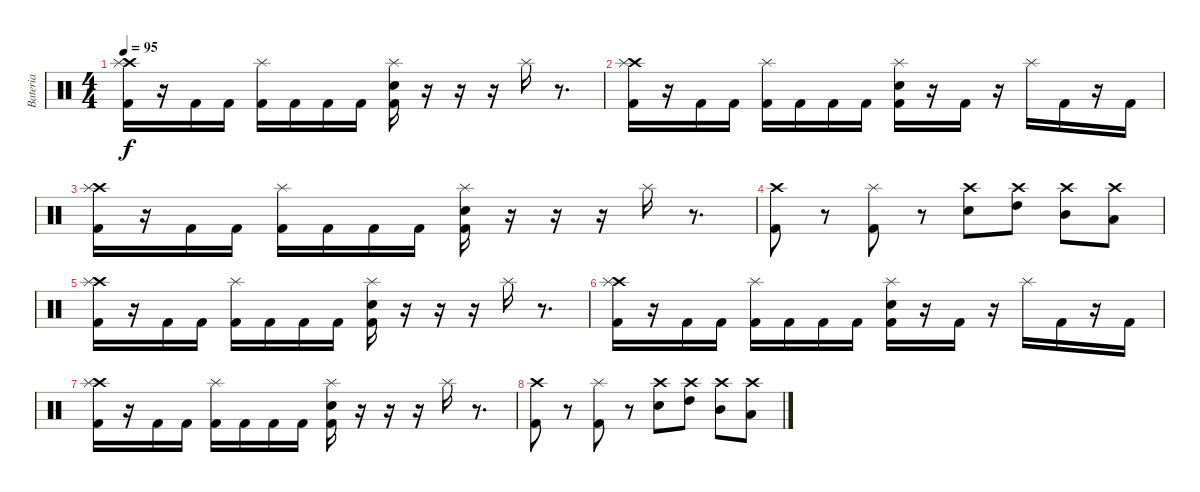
\track ("Bateria" "Bateria") {instrument percussion}
\staff {score}
\articulation defaults
\ts (4 4)
\tempo 95
\clef neutral
\ks c
("Crash high (hit)" "Splash (hit)" "Kick (hit) 2").16{dy f} r.16 "Kick (hit) 2".16 "Kick (hit) 2".16 ("Splash (hit)" "Kick (hit) 2").16 "Kick (hit) 2".16 "Kick (hit) 2".16 "Kick (hit) 2".16 ("Splash (hit)" "Electric Snare (hit)" "Kick (hit) 2").16 r.16 r.16 r.16 "Splash (hit)".16 r.8{d} |
("Crash high (hit)" "Splash (hit)" "Kick (hit) 2").16 r.16 "Kick (hit) 2".16 "Kick (hit) 2".16 ("Splash (hit)" "Kick (hit) 2").16 "Kick (hit) 2".16 "Kick (hit) 2".16 "Kick (hit) 2".16 ("Splash (hit)" "Electric Snare (hit)" "Kick (hit) 2").16 r.16 "Kick (hit) 2".16 r.16 "Splash (hit)".16 "Kick (hit) 2".16 r.16 "Kick (hit) 2".16 |
("Crash high (hit)" "Splash (hit)" "Kick (hit) 2").16 r.16 "Kick (hit) 2".16 "Kick (hit) 2".16 ("Splash (hit)" "Kick (hit) 2").16 "Kick (hit) 2".16 "Kick (hit) 2".16 "Kick (hit) 2".16 ("Splash (hit)" "Electric Snare (hit)" "Kick (hit) 2").16 r.16 r.16 r.16 "Splash (hit)".16 r.8{d} |
("Crash high (hit)" "Kick (hit) 2").8 r.8 ("Splash (hit)" "Kick (hit) 2").8 r.8 ("Crash high (hit)" "Electric Snare (hit)").8 ("Crash high (hit)" "High Tom (hit)").8 ("Crash high (hit)" "Mid Tom (hit)").8 ("Crash high (hit)" "Low Tom (hit)").8 |
("Crash high (hit)" "Splash (hit)" "Kick (hit) 2").16 r.16 "Kick (hit) 2".16 "Kick (hit) 2".16 ("Splash (hit)" "Kick (hit) 2").16 "Kick (hit) 2".16 "Kick (hit) 2".16 "Kick (hit) 2".16 ("Splash (hit)" "Electric Snare (hit)" "Kick (hit) 2").16 r.16 r.16 r.16 "Splash (hit)".16 r.8{d} |
("Crash high (hit)" "Splash (hit)" "Kick (hit) 2").16 r.16 "Kick (hit) 2".16 "Kick (hit) 2".16 ("Splash (hit)" "Kick (hit) 2").16 "Kick (hit) 2".16 "Kick (hit) 2".16 "Kick (hit) 2".16 ("Splash (hit)" "Electric Snare (hit)" "Kick (hit) 2").16 r.16 "Kick (hit) 2".16 r.16 "Splash (hit)".16 "Kick (hit) 2".16 r.16 "Kick (hit) 2".16 |
("Crash high (hit)" "Splash (hit)" "Kick (hit) 2").16 r.16 "Kick (hit) 2".16 "Kick (hit) 2".16 ("Splash (hit)" "Kick (hit) 2").16 "Kick (hit) 2".16 "Kick (hit) 2".16 "Kick (hit) 2".16 ("Splash (hit)" "Electric Snare (hit)" "Kick (hit) 2").16 r.16 r.16 r.16 "Splash (hit)".16 r.8{d} |
("Crash high (hit)" "Kick (hit) 2").8 r.8 ("Splash (hit)" "Kick (hit) 2").8 r.8 ("Crash high (hit)" "Electric Snare (hit)").8 ("Crash high (hit)" "High Tom (hit)").8 ("Crash high (hit)" "Mid Tom (hit)").8 ("Crash high (hit)" "Low Tom (hit)").8
